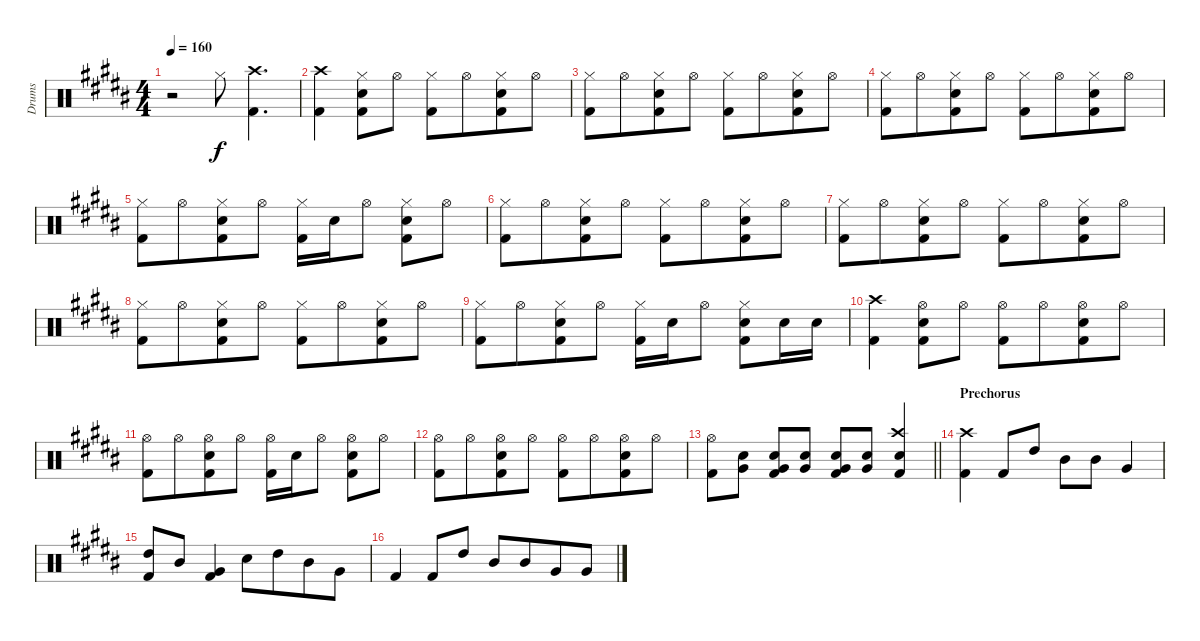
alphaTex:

\track ("Drums" "Drums") {instrument percussion}
\staff {score}
\articulation defaults
\ts (4 4)
\tempo 160
\clef neutral
\ks b
r.2{dy f} "Hi-Hat (closed)".8 ("Kick (hit) 2" "Crash high (hit)").4{d} |
("Kick (hit) 2" "Crash high (hit)").4 ("Hi-Hat (closed)" "Snare (hit) 2" "Kick (hit) 2").8 "Hi-Hat (open)".8 ("Hi-Hat (closed)" "Kick (hit) 2").8 "Hi-Hat (open)".8{beam merge} ("Hi-Hat (closed)" "Snare (hit) 2" "Kick (hit) 2").8 "Hi-Hat (open)".8 |
("Hi-Hat (closed)" "Kick (hit) 2").8 "Hi-Hat (open)".8{beam merge} ("Hi-Hat (closed)" "Snare (hit) 2" "Kick (hit) 2").8 "Hi-Hat (open)".8 ("Hi-Hat (closed)" "Kick (hit) 2").8 "Hi-Hat (open)".8{beam merge} ("Hi-Hat (closed)" "Snare (hit) 2" "Kick (hit) 2").8 "Hi-Hat (open)".8 |
("Hi-Hat (closed)" "Kick (hit) 2").8 "Hi-Hat (open)".8{beam merge} ("Hi-Hat (closed)" "Snare (hit) 2" "Kick (hit) 2").8 "Hi-Hat (open)".8 ("Hi-Hat (closed)" "Kick (hit) 2").8 "Hi-Hat (open)".8{beam merge} ("Hi-Hat (closed)" "Snare (hit) 2" "Kick (hit) 2").8 "Hi-Hat (open)".8 |
("Hi-Hat (closed)" "Kick (hit) 2").8 "Hi-Hat (open)".8{beam merge} ("Hi-Hat (closed)" "Snare (hit) 2" "Kick (hit) 2").8 "Hi-Hat (open)".8 ("Hi-Hat (closed)" "Kick (hit) 2").16 "Snare (hit) 2".16 "Hi-Hat (open)".8 ("Hi-Hat (closed)" "Snare (hit) 2" "Kick (hit) 2").8 "Hi-Hat (open)".8 |
("Hi-Hat (closed)" "Kick (hit) 2").8 "Hi-Hat (open)".8{beam merge} ("Hi-Hat (closed)" "Snare (hit) 2" "Kick (hit) 2").8 "Hi-Hat (open)".8 ("Hi-Hat (closed)" "Kick (hit) 2").8 "Hi-Hat (open)".8{beam merge} ("Hi-Hat (closed)" "Snare (hit) 2" "Kick (hit) 2").8 "Hi-Hat (open)".8 |
("Hi-Hat (closed)" "Kick (hit) 2").8 "Hi-Hat (open)".8{beam merge} ("Hi-Hat (closed)" "Snare (hit) 2" "Kick (hit) 2").8 "Hi-Hat (open)".8 ("Hi-Hat (closed)" "Kick (hit) 2").8 "Hi-Hat (open)".8{beam merge} ("Hi-Hat (closed)" "Snare (hit) 2" "Kick (hit) 2").8 "Hi-Hat (open)".8 |
("Hi-Hat (closed)" "Kick (hit) 2").8 "Hi-Hat (open)".8{beam merge} ("Hi-Hat (closed)" "Snare (hit) 2" "Kick (hit) 2").8 "Hi-Hat (open)".8 ("Hi-Hat (closed)" "Kick (hit) 2").8 "Hi-Hat (open)".8{beam merge} ("Hi-Hat (closed)" "Snare (hit) 2" "Kick (hit) 2").8 "Hi-Hat (open)".8 |
("Hi-Hat (closed)" "Kick (hit) 2").8 "Hi-Hat (open)".8{beam merge} ("Hi-Hat (closed)" "Snare (hit) 2" "Kick (hit) 2").8 "Hi-Hat (open)".8 ("Hi-Hat (closed)" "Kick (hit) 2").16 "Snare (hit) 2".16 "Hi-Hat (open)".8 ("Hi-Hat (closed)" "Snare (hit) 2" "Kick (hit) 2").8 "Snare (hit) 2".16 "Snare (hit) 2".16 |
("Kick (hit) 2" "Crash high (hit)").4 ("Hi-Hat (open)" "Snare (hit) 2" "Kick (hit) 2").8 "Hi-Hat (open)".8 ("Hi-Hat (open)" "Kick (hit) 2").8 "Hi-Hat (open)".8{beam merge} ("Hi-Hat (open)" "Snare (hit) 2" "Kick (hit) 2").8 "Hi-Hat (open)".8 |
("Hi-Hat (open)" "Kick (hit) 2").8 "Hi-Hat (open)".8{beam merge} ("Hi-Hat (open)" "Snare (hit) 2" "Kick (hit) 2").8 "Hi-Hat (open)".8 ("Hi-Hat (open)" "Kick (hit) 2").16 "Snare (hit) 2".16 "Hi-Hat (open)".8 ("Hi-Hat (open)" "Snare (hit) 2" "Kick (hit) 2").8 "Hi-Hat (open)".8 |
("Hi-Hat (open)" "Kick (hit) 2").8 "Hi-Hat (open)".8{beam merge} ("Hi-Hat (open)" "Snare (hit) 2" "Kick (hit) 2").8 "Hi-Hat (open)".8 ("Hi-Hat (open)" "Kick (hit) 2").8 "Hi-Hat (open)".8{beam merge} ("Hi-Hat (open)" "Snare (hit) 2" "Kick (hit) 2").8 "Hi-Hat (open)".8 |
\barLineRight lightlight
("Hi-Hat (open)" "Kick (hit) 2").8 ("Very Low Tom (hit)" "Snare (hit) 2").8 ("Very Low Tom (hit)" "Snare (hit) 2" "Kick (hit) 2").8 ("Very Low Tom (hit)" "Snare (hit) 2").8 ("Very Low Tom (hit)" "Snare (hit) 2" "Kick (hit) 2").8 ("Very Low Tom (hit)" "Snare (hit) 2").8 ("Snare (hit) 2" "Kick (hit) 2" "Crash high (hit)").4 |
\section ("" "Prechorus")
("Kick (hit) 2" "Crash high (hit)").4 "Kick (hit) 2".8 "High Tom (hit)".8 "Mid Tom (hit)".8 "Mid Tom (hit)".8 "Very Low Tom (hit)".4 |
("High Tom (hit)" "Kick (hit) 2").8 "Mid Tom (hit)".8 ("Very Low Tom (hit)" "Kick (hit) 2").4 "Snare (hit) 2".8 "High Tom (hit)".8{beam merge} "Mid Tom (hit)".8 "Very Low Tom (hit)".8 |
"Kick (hit) 2".4 "Kick (hit) 2".8 "High Tom (hit)".8 "Mid Tom (hit)".8 "Mid Tom (hit)".8{beam merge} "Very Low Tom (hit)".8 "Very Low Tom (hit)".8
